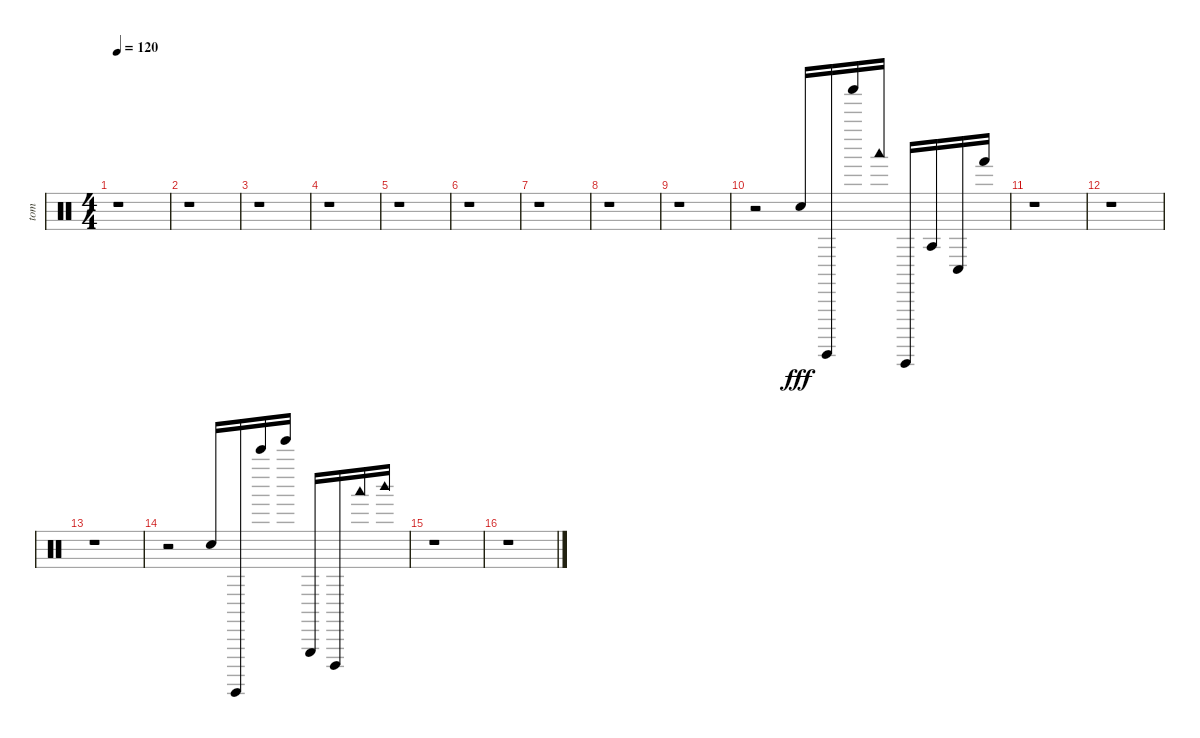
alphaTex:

\track ("tom" "tom") {instrument percussion}
\staff {score}
\articulation defaults
\ts (4 4)
\tempo 120
\clef neutral
\ks c
r.1{dy fff} |
r.1 |
r.1 |
r.1 |
r.1 |
r.1 |
r.1 |
r.1 |
r.1 |
r.2 "Snare (hit)".16{balance 16} "Surdo (hit)".16{balance 14} "Shaker (hit)".16{balance 11} "Woodblock low (hit)".16{balance 9} "Guiro (hit)".16{balance 7} "Agogo tow (hit)".16{balance 5} "Conga low (hit)".16{balance 3} "Hand (hit)".16{balance 1} |
r.1 |
r.1 |
r.1 |
r.2 "Snare (hit)".16{balance 1} "Surdo (hit)".16{balance 2} "Bell Tree (hit)".16{balance 4} "Tinkle Bell (hit)".16{balance 6} "Triangle (hit)".16{balance 8} "Cuica (open)".16{balance 10} "Woodblock low (hit)".16{balance 12} "Woodblock high (hit)".16{balance 14} |
r.1 |
r.1
